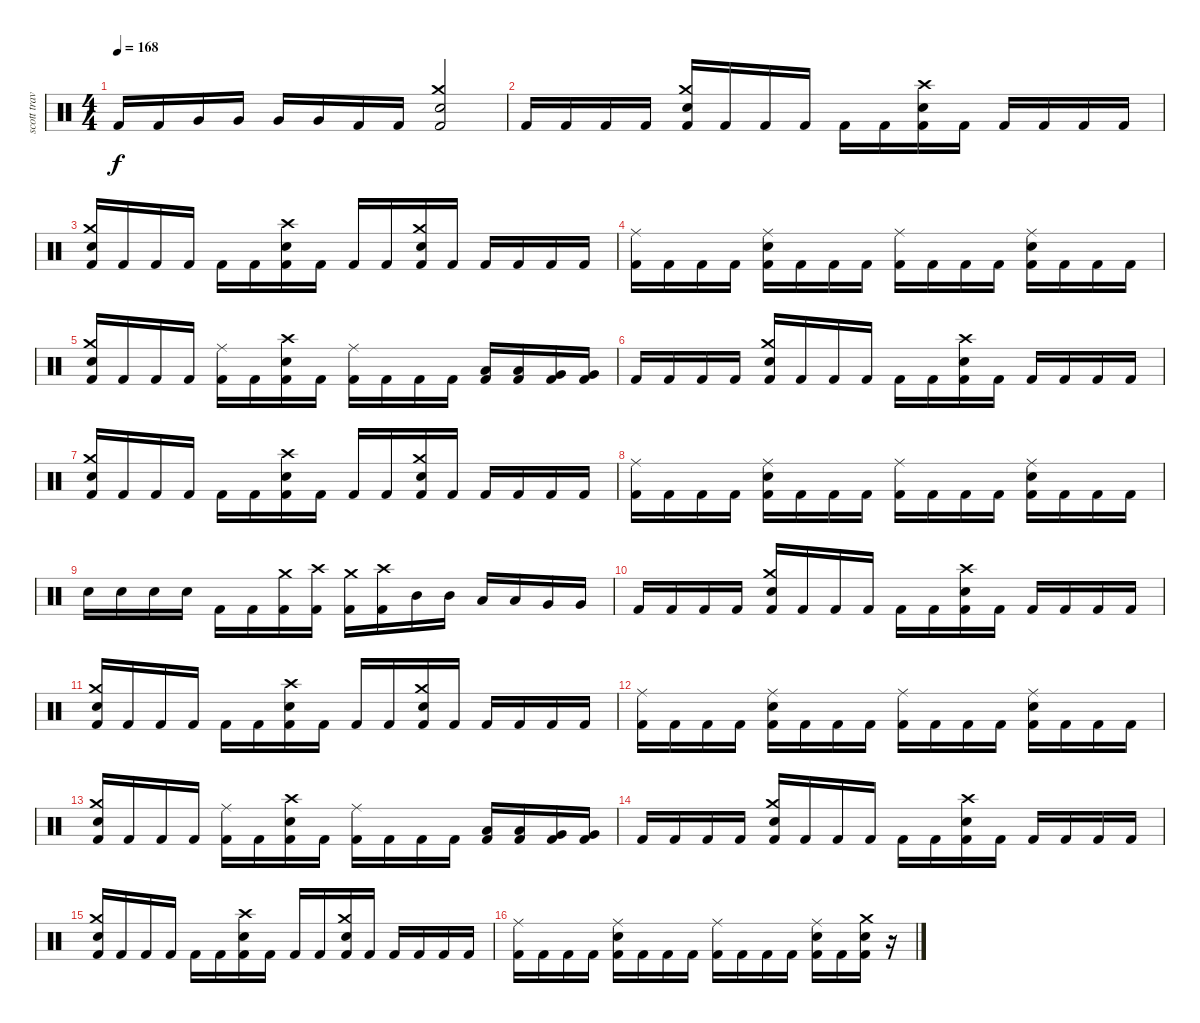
\track ("scott travis" "scott trav") {instrument percussion}
\staff {score}
\articulation defaults
\ts (4 4)
\tempo 168
\clef neutral
\ks c "Kick (hit) 2".16{dy f} "Kick (hit) 2".16 "Very Low Tom (hit)".16 "Very Low Tom (hit)".16 "Very Low Tom (hit)".16 "Very Low Tom (hit)".16 "Kick (hit) 2".16 "Kick (hit) 2".16
("Crash medium (hit)" "Snare (hit) 2" "Kick (hit) 2").2 |
"Kick (hit) 2".16 "Kick (hit) 2".16 "Kick (hit) 2".16 "Kick (hit) 2".16 ("Crash medium (hit)" "Snare (hit) 2" "Kick (hit) 2").16 "Kick (hit) 2".16 "Kick (hit) 2".16 "Kick (hit) 2".16 "Kick (hit) 2".16 "Kick (hit) 2".16 ("Crash high (hit)" "Snare (hit) 2" "Kick (hit) 2").16 "Kick (hit) 2".16 "Kick (hit) 2".16 "Kick (hit) 2".16 "Kick (hit) 2".16 "Kick (hit) 2".16 |
("Crash medium (hit)" "Snare (hit) 2" "Kick (hit) 2").16 "Kick (hit) 2".16 "Kick (hit) 2".16 "Kick (hit) 2".16 "Kick (hit) 2".16 "Kick (hit) 2".16 ("Crash high (hit)" "Snare (hit) 2" "Kick (hit) 2").16 "Kick (hit) 2".16 "Kick (hit) 2".16 "Kick (hit) 2".16 ("Crash medium (hit)" "Snare (hit) 2" "Kick (hit) 2").16 "Kick (hit) 2".16 "Kick (hit) 2".16 "Kick (hit) 2".16 "Kick (hit) 2".16 "Kick (hit) 2".16 |
("Ride (middle)" "Kick (hit) 2").16 "Kick (hit) 2".16 "Kick (hit) 2".16 "Kick (hit) 2".16 ("Ride (middle)" "Snare (hit) 2" "Kick (hit) 2").16 "Kick (hit) 2".16 "Kick (hit) 2".16 "Kick (hit) 2".16 ("Ride (middle)" "Kick (hit) 2").16 "Kick (hit) 2".16 "Kick (hit) 2".16 "Kick (hit) 2".16 ("Ride (middle)" "Snare (hit) 2" "Kick (hit) 2").16 "Kick (hit) 2".16 "Kick (hit) 2".16 "Kick (hit) 2".16 |
("Crash medium (hit)" "Snare (hit) 2" "Kick (hit) 2").16 "Kick (hit) 2".16 "Kick (hit) 2".16 "Kick (hit) 2".16 ("Ride (middle)" "Kick (hit) 2").16 "Kick (hit) 2".16 ("Crash high (hit)" "Snare (hit) 2" "Kick (hit) 2").16 "Kick (hit) 2".16 ("Ride (middle)" "Kick (hit) 2").16 "Kick (hit) 2".16 "Kick (hit) 2".16 "Kick (hit) 2".16 ("Low Tom (hit)" "Kick (hit) 2").16 ("Low Tom (hit)" "Kick (hit) 2").16 ("Very Low Tom (hit)" "Kick (hit) 2").16 ("Very Low Tom (hit)" "Kick (hit) 2").16 |
"Kick (hit) 2".16 "Kick (hit) 2".16 "Kick (hit) 2".16 "Kick (hit) 2".16 ("Crash medium (hit)" "Snare (hit) 2" "Kick (hit) 2").16 "Kick (hit) 2".16 "Kick (hit) 2".16 "Kick (hit) 2".16 "Kick (hit) 2".16 "Kick (hit) 2".16 ("Crash high (hit)" "Snare (hit) 2" "Kick (hit) 2").16 "Kick (hit) 2".16 "Kick (hit) 2".16 "Kick (hit) 2".16 "Kick (hit) 2".16 "Kick (hit) 2".16 |
("Crash medium (hit)" "Snare (hit) 2" "Kick (hit) 2").16 "Kick (hit) 2".16 "Kick (hit) 2".16 "Kick (hit) 2".16 "Kick (hit) 2".16 "Kick (hit) 2".16 ("Crash high (hit)" "Snare (hit) 2" "Kick (hit) 2").16 "Kick (hit) 2".16 "Kick (hit) 2".16 "Kick (hit) 2".16 ("Crash medium (hit)" "Snare (hit) 2" "Kick (hit) 2").16 "Kick (hit) 2".16 "Kick (hit) 2".16 "Kick (hit) 2".16 "Kick (hit) 2".16 "Kick (hit) 2".16 |
("Ride (middle)" "Kick (hit) 2").16 "Kick (hit) 2".16 "Kick (hit) 2".16 "Kick (hit) 2".16 ("Ride (middle)" "Snare (hit) 2" "Kick (hit) 2").16 "Kick (hit) 2".16 "Kick (hit) 2".16 "Kick (hit) 2".16 ("Ride (middle)" "Kick (hit) 2").16 "Kick (hit) 2".16 "Kick (hit) 2".16 "Kick (hit) 2".16 ("Ride (middle)" "Snare (hit) 2" "Kick (hit) 2").16 "Kick (hit) 2".16 "Kick (hit) 2".16 "Kick (hit) 2".16 |
"Snare (hit) 2".16 "Snare (hit) 2".16 "Snare (hit) 2".16 "Snare (hit) 2".16 "Kick (hit) 2".16 "Kick (hit) 2".16 ("Crash medium (hit)" "Kick (hit) 2").16 ("Crash high (hit)" "Kick (hit) 2").16 ("Crash medium (hit)" "Kick (hit) 2").16 ("Crash high (hit)" "Kick (hit) 2").16 "Mid Tom (hit)".16 "Mid Tom (hit)".16 "Low Tom (hit)".16 "Low Tom (hit)".16 "Very Low Tom (hit)".16 "Very Low Tom (hit)".16 |
"Kick (hit) 2".16 "Kick (hit) 2".16 "Kick (hit) 2".16 "Kick (hit) 2".16 ("Crash medium (hit)" "Snare (hit) 2" "Kick (hit) 2").16 "Kick (hit) 2".16 "Kick (hit) 2".16 "Kick (hit) 2".16 "Kick (hit) 2".16 "Kick (hit) 2".16 ("Crash high (hit)" "Snare (hit) 2" "Kick (hit) 2").16 "Kick (hit) 2".16 "Kick (hit) 2".16 "Kick (hit) 2".16 "Kick (hit) 2".16 "Kick (hit) 2".16 |
("Crash medium (hit)" "Snare (hit) 2" "Kick (hit) 2").16 "Kick (hit) 2".16 "Kick (hit) 2".16 "Kick (hit) 2".16 "Kick (hit) 2".16 "Kick (hit) 2".16 ("Crash high (hit)" "Snare (hit) 2" "Kick (hit) 2").16 "Kick (hit) 2".16 "Kick (hit) 2".16 "Kick (hit) 2".16 ("Crash medium (hit)" "Snare (hit) 2" "Kick (hit) 2").16 "Kick (hit) 2".16 "Kick (hit) 2".16 "Kick (hit) 2".16 "Kick (hit) 2".16 "Kick (hit) 2".16 |
("Ride (middle)" "Kick (hit) 2").16 "Kick (hit) 2".16 "Kick (hit) 2".16 "Kick (hit) 2".16 ("Ride (middle)" "Snare (hit) 2" "Kick (hit) 2").16 "Kick (hit) 2".16 "Kick (hit) 2".16 "Kick (hit) 2".16 ("Ride (middle)" "Kick (hit) 2").16 "Kick (hit) 2".16 "Kick (hit) 2".16 "Kick (hit) 2".16 ("Ride (middle)" "Snare (hit) 2" "Kick (hit) 2").16 "Kick (hit) 2".16 "Kick (hit) 2".16 "Kick (hit) 2".16 |
("Crash medium (hit)" "Snare (hit) 2" "Kick (hit) 2").16 "Kick (hit) 2".16 "Kick (hit) 2".16 "Kick (hit) 2".16 ("Ride (middle)" "Kick (hit) 2").16 "Kick (hit) 2".16 ("Crash high (hit)" "Snare (hit) 2" "Kick (hit) 2").16 "Kick (hit) 2".16 ("Ride (middle)" "Kick (hit) 2").16 "Kick (hit) 2".16 "Kick (hit) 2".16 "Kick (hit) 2".16 ("Low Tom (hit)" "Kick (hit) 2").16 ("Low Tom (hit)" "Kick (hit) 2").16 ("Very Low Tom (hit)" "Kick (hit) 2").16 ("Very Low Tom (hit)" "Kick (hit) 2").16 |
"Kick (hit) 2".16 "Kick (hit) 2".16 "Kick (hit) 2".16 "Kick (hit) 2".16 ("Crash medium (hit)" "Snare (hit) 2" "Kick (hit) 2").16 "Kick (hit) 2".16 "Kick (hit) 2".16 "Kick (hit) 2".16 "Kick (hit) 2".16 "Kick (hit) 2".16 ("Crash high (hit)" "Snare (hit) 2" "Kick (hit) 2").16 "Kick (hit) 2".16 "Kick (hit) 2".16 "Kick (hit) 2".16 "Kick (hit) 2".16 "Kick (hit) 2".16 |
("Crash medium (hit)" "Snare (hit) 2" "Kick (hit) 2").16 "Kick (hit) 2".16 "Kick (hit) 2".16 "Kick (hit) 2".16 "Kick (hit) 2".16 "Kick (hit) 2".16 ("Crash high (hit)" "Snare (hit) 2" "Kick (hit) 2").16 "Kick (hit) 2".16 "Kick (hit) 2".16 "Kick (hit) 2".16 ("Crash medium (hit)" "Snare (hit) 2" "Kick (hit) 2").16 "Kick (hit) 2".16 "Kick (hit) 2".16 "Kick (hit) 2".16 "Kick (hit) 2".16 "Kick (hit) 2".16 |
("Ride (middle)" "Kick (hit) 2").16 "Kick (hit) 2".16 "Kick (hit) 2".16 "Kick (hit) 2".16 ("Ride (middle)" "Snare (hit) 2" "Kick (hit) 2").16 "Kick (hit) 2".16 "Kick (hit) 2".16 "Kick (hit) 2".16 ("Ride (middle)" "Kick (hit) 2").16 "Kick (hit) 2".16 "Kick (hit) 2".16 "Kick (hit) 2".16 ("Ride (middle)" "Snare (hit) 2" "Kick (hit) 2").16 "Kick (hit) 2".16 ("Crash medium (hit)" "Snare (hit) 2" "Kick (hit) 2").16 r.16
